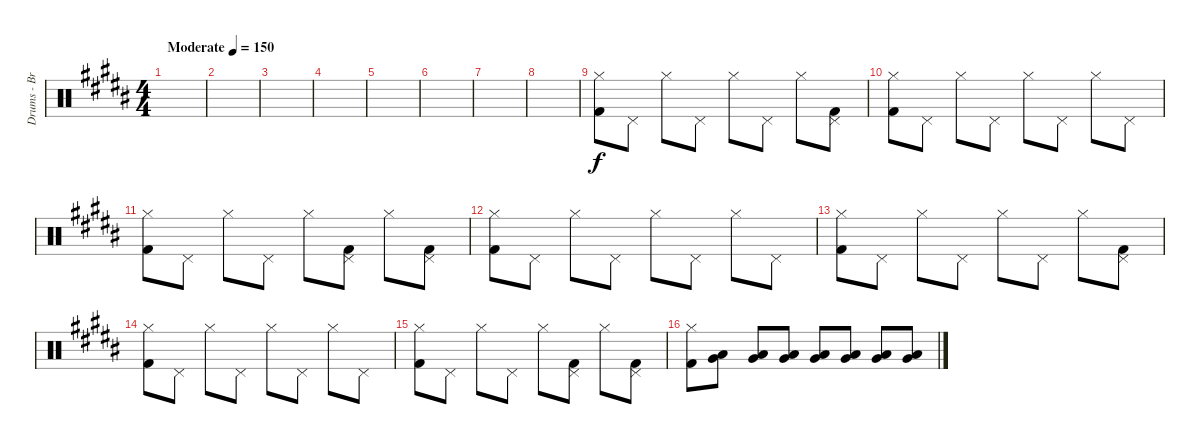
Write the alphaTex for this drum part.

\track ("Drums - Brandon" "Drums - Br") {instrument percussion}
\staff {score}
\articulation defaults
\ts (4 4)
\tempo (150 "Moderate")
\clef neutral
\ks b
|
|
|
|
|
|
|
|
("Hi-Hat (closed)" "Kick (hit) 2").8 "Pedal Hi-Hat (hit)".8 "Hi-Hat (closed)".8 "Pedal Hi-Hat (hit)".8 "Hi-Hat (closed)".8 "Pedal Hi-Hat (hit)".8 "Hi-Hat (closed)".8 ("Pedal Hi-Hat (hit)" "Kick (hit) 2").8 |
("Hi-Hat (closed)" "Kick (hit) 2").8 "Pedal Hi-Hat (hit)".8 "Hi-Hat (closed)".8 "Pedal Hi-Hat (hit)".8 "Hi-Hat (closed)".8 "Pedal Hi-Hat (hit)".8 "Hi-Hat (closed)".8 "Pedal Hi-Hat (hit)".8 |
("Hi-Hat (closed)" "Kick (hit) 2").8 "Pedal Hi-Hat (hit)".8 "Hi-Hat (closed)".8 "Pedal Hi-Hat (hit)".8 "Hi-Hat (closed)".8 ("Pedal Hi-Hat (hit)" "Kick (hit) 2").8 "Hi-Hat (closed)".8 ("Pedal Hi-Hat (hit)" "Kick (hit) 2").8 |
("Hi-Hat (closed)" "Kick (hit) 2").8 "Pedal Hi-Hat (hit)".8 "Hi-Hat (closed)".8 "Pedal Hi-Hat (hit)".8 "Hi-Hat (closed)".8 "Pedal Hi-Hat (hit)".8 "Hi-Hat (closed)".8 "Pedal Hi-Hat (hit)".8 |
("Hi-Hat (closed)" "Kick (hit) 2").8 "Pedal Hi-Hat (hit)".8 "Hi-Hat (closed)".8 "Pedal Hi-Hat (hit)".8 "Hi-Hat (closed)".8 "Pedal Hi-Hat (hit)".8 "Hi-Hat (closed)".8 ("Pedal Hi-Hat (hit)" "Kick (hit) 2").8 |
("Hi-Hat (closed)" "Kick (hit) 2").8 "Pedal Hi-Hat (hit)".8 "Hi-Hat (closed)".8 "Pedal Hi-Hat (hit)".8 "Hi-Hat (closed)".8 "Pedal Hi-Hat (hit)".8 "Hi-Hat (closed)".8 "Pedal Hi-Hat (hit)".8 |
("Hi-Hat (closed)" "Kick (hit) 2").8 "Pedal Hi-Hat (hit)".8 "Hi-Hat (closed)".8 "Pedal Hi-Hat (hit)".8 "Hi-Hat (closed)".8 ("Pedal Hi-Hat (hit)" "Kick (hit) 2").8 "Hi-Hat (closed)".8 ("Pedal Hi-Hat (hit)" "Kick (hit) 2").8 |
("Hi-Hat (closed)" "Kick (hit) 2").8 ("Low Tom (hit)" "Very Low Tom (hit)").8 ("Low Tom (hit)" "Very Low Tom (hit)").8 ("Low Tom (hit)" "Very Low Tom (hit)").8 ("Low Tom (hit)" "Very Low Tom (hit)").8 ("Low Tom (hit)" "Very Low Tom (hit)").8 ("Low Tom (hit)" "Very Low Tom (hit)").8 ("Low Tom (hit)" "Very Low Tom (hit)").8
